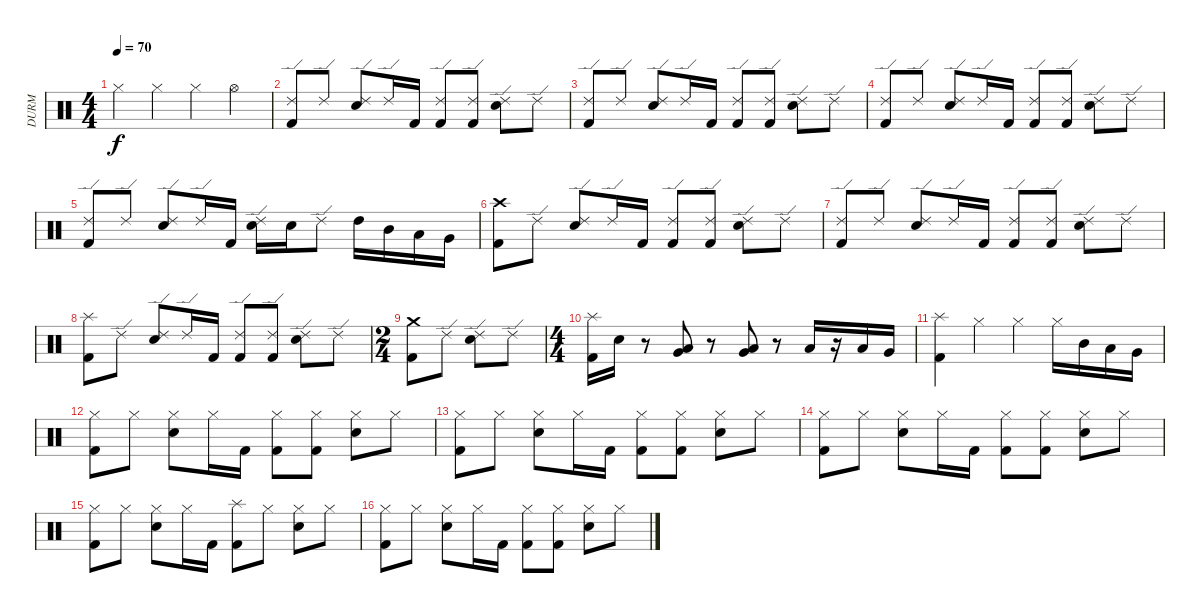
\track ("DURM" "DURM") {instrument percussion}
\staff {score}
\articulation defaults
\ts (4 4)
\tempo 70
\clef neutral
\ks c "Hi-Hat (closed)".4{dy f} "Hi-Hat (closed)".4 "Hi-Hat (closed)".4 "Hi-Hat (open)".4
|
("Ride (edge) 2" "Kick (hit) 2").8 "Ride (edge) 2".8 ("Ride (edge) 2" "Snare (hit) 2").8 "Ride (edge) 2".16 "Kick (hit) 2".16 ("Ride (edge) 2" "Kick (hit) 2").8 ("Ride (edge) 2" "Kick (hit) 2").8 ("Ride (edge) 2" "Snare (hit) 2").8 "Ride (edge) 2".8 |
("Ride (edge) 2" "Kick (hit) 2").8 "Ride (edge) 2".8 ("Ride (edge) 2" "Snare (hit) 2").8 "Ride (edge) 2".16 "Kick (hit) 2".16 ("Ride (edge) 2" "Kick (hit) 2").8 ("Ride (edge) 2" "Kick (hit) 2").8 ("Ride (edge) 2" "Snare (hit) 2").8 "Ride (edge) 2".8 |
("Ride (edge) 2" "Kick (hit) 2").8 "Ride (edge) 2".8 ("Ride (edge) 2" "Snare (hit) 2").8 "Ride (edge) 2".16 "Kick (hit) 2".16 ("Ride (edge) 2" "Kick (hit) 2").8 ("Ride (edge) 2" "Kick (hit) 2").8 ("Ride (edge) 2" "Snare (hit) 2").8 "Ride (edge) 2".8 |
("Ride (edge) 2" "Kick (hit) 2").8 "Ride (edge) 2".8 ("Ride (edge) 2" "Snare (hit) 2").8 "Ride (edge) 2".16 "Kick (hit) 2".16 ("Ride (edge) 2" "Snare (hit) 2").16 "Snare (hit) 2".16 "Ride (edge) 2".8 "High Tom (hit)".16 "Mid Tom (hit)".16 "Low Tom (hit)".16 "Very Low Tom (hit)".16 |
("Crash high (hit)" "Kick (hit) 2").8 "Ride (edge) 2".8 ("Ride (edge) 2" "Snare (hit) 2").8 "Ride (edge) 2".16 "Kick (hit) 2".16 ("Ride (edge) 2" "Kick (hit) 2").8 ("Ride (edge) 2" "Kick (hit) 2").8 ("Ride (edge) 2" "Snare (hit) 2").8 "Ride (edge) 2".8 |
("Ride (edge) 2" "Kick (hit) 2").8 "Ride (edge) 2".8 ("Ride (edge) 2" "Snare (hit) 2").8 "Ride (edge) 2".16 "Kick (hit) 2".16 ("Ride (edge) 2" "Kick (hit) 2").8 ("Ride (edge) 2" "Kick (hit) 2").8 ("Ride (edge) 2" "Snare (hit) 2").8 "Ride (edge) 2".8 |
("Splash (hit)" "Kick (hit) 2").8 "Ride (edge) 2".8 ("Ride (edge) 2" "Snare (hit) 2").8 "Ride (edge) 2".16 "Kick (hit) 2".16 ("Ride (edge) 2" "Kick (hit) 2").8 ("Ride (edge) 2" "Kick (hit) 2").8 ("Ride (edge) 2" "Snare (hit) 2").8 "Ride (edge) 2".8 |
\ts (2 4)
("Crash medium (hit)" "Kick (hit) 2").8 "Ride (edge) 2".8 ("Ride (edge) 2" "Snare (hit) 2").8 "Ride (edge) 2".8 |
\ts (4 4)
("Splash (hit)" "Kick (hit) 2").16 "Snare (hit) 2".16 r.8 ("Very Low Tom (hit)" "Low Tom (hit)").8 r.8 ("Low Floor Tom (hit)" "Very Low Tom (hit)").8 r.8 "Low Floor Tom (hit)".16 r.16 "Low Tom (hit)".16 "Very Low Tom (hit)".16 |
("Splash (hit)" "Kick (hit) 2").4 "Hi-Hat (closed)".4 "Hi-Hat (closed)".4 "Hi-Hat (closed)".16 "Mid Tom (hit)".16 "Low Tom (hit)".16 "Very Low Tom (hit)".16 |
("Hi-Hat (closed)" "Kick (hit) 2").8 "Hi-Hat (closed)".8 ("Hi-Hat (closed)" "Snare (hit) 2").8 "Hi-Hat (closed)".16 "Kick (hit) 2".16 ("Hi-Hat (closed)" "Kick (hit) 2").8 ("Hi-Hat (closed)" "Kick (hit) 2").8 ("Hi-Hat (closed)" "Snare (hit) 2").8 "Hi-Hat (closed)".8 |
("Hi-Hat (closed)" "Kick (hit) 2").8 "Hi-Hat (closed)".8 ("Hi-Hat (closed)" "Snare (hit) 2").8 "Hi-Hat (closed)".16 "Kick (hit) 2".16 ("Hi-Hat (closed)" "Kick (hit) 2").8 ("Hi-Hat (closed)" "Kick (hit) 2").8 ("Hi-Hat (closed)" "Snare (hit) 2").8 "Hi-Hat (closed)".8 |
("Hi-Hat (closed)" "Kick (hit) 2").8 "Hi-Hat (closed)".8 ("Hi-Hat (closed)" "Snare (hit) 2").8 "Hi-Hat (closed)".16 "Kick (hit) 2".16 ("Hi-Hat (closed)" "Kick (hit) 2").8 ("Hi-Hat (closed)" "Kick (hit) 2").8 ("Hi-Hat (closed)" "Snare (hit) 2").8 "Hi-Hat (closed)".8 |
("Hi-Hat (closed)" "Kick (hit) 2").8 "Hi-Hat (closed)".8 ("Hi-Hat (closed)" "Snare (hit) 2").8 "Hi-Hat (closed)".16 "Kick (hit) 2".16 ("Splash (hit)" "Kick (hit) 2").8 "Hi-Hat (closed)".8 ("Hi-Hat (closed)" "Snare (hit) 2").8 "Hi-Hat (closed)".8 |
("Hi-Hat (closed)" "Kick (hit) 2").8 "Hi-Hat (closed)".8 ("Hi-Hat (closed)" "Snare (hit) 2").8 "Hi-Hat (closed)".16 "Kick (hit) 2".16 ("Hi-Hat (closed)" "Kick (hit) 2").8 ("Hi-Hat (closed)" "Kick (hit) 2").8 ("Hi-Hat (closed)" "Snare (hit) 2").8 "Hi-Hat (closed)".8
